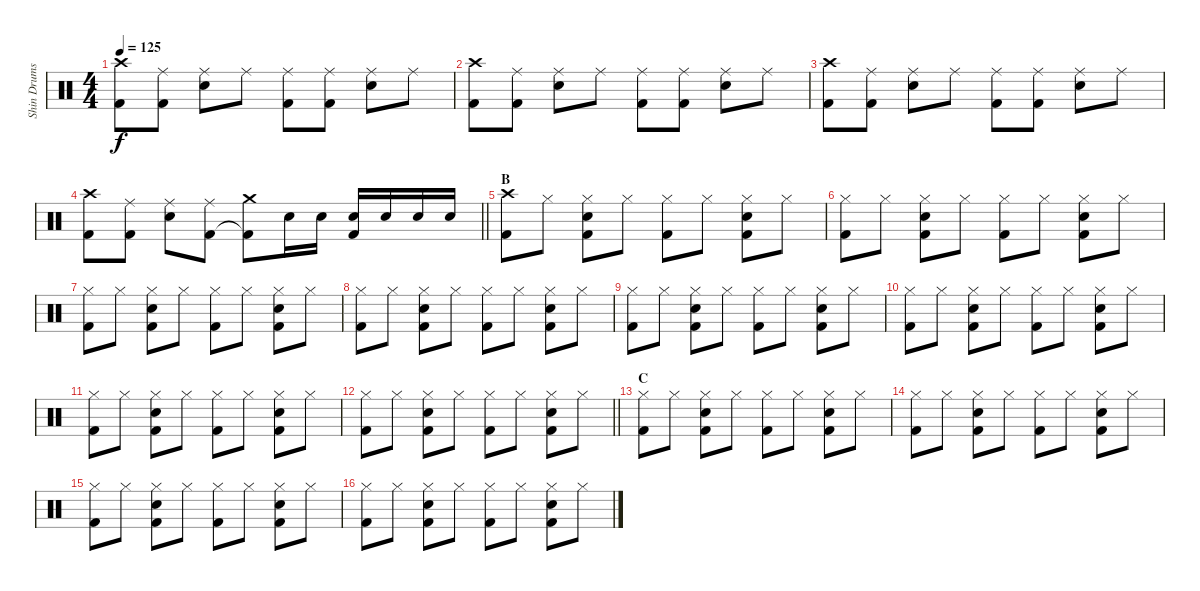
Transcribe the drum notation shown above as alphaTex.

\track ("Shin Drums" "Shin Drums") {instrument percussion}
\staff {score}
\articulation defaults
\ts (4 4)
\tempo 125
\clef neutral
\ks c
("Crash high (hit)" "Kick (hit) 2").8{dy f} ("Ride (middle)" "Kick (hit) 2").8 ("Ride (middle)" "Snare (hit) 2").8 "Ride (middle)".8 ("Ride (middle)" "Kick (hit) 2").8 ("Ride (middle)" "Kick (hit) 2").8 ("Ride (middle)" "Snare (hit) 2").8 "Ride (middle)".8 |
("Crash high (hit)" "Kick (hit) 2").8 ("Ride (middle)" "Kick (hit) 2").8 ("Ride (middle)" "Snare (hit) 2").8 "Ride (middle)".8 ("Ride (middle)" "Kick (hit) 2").8 ("Ride (middle)" "Kick (hit) 2").8 ("Ride (middle)" "Snare (hit) 2").8 "Ride (middle)".8 |
("Crash high (hit)" "Kick (hit) 2").8 ("Ride (middle)" "Kick (hit) 2").8 ("Ride (middle)" "Snare (hit) 2").8 "Ride (middle)".8 ("Ride (middle)" "Kick (hit) 2").8 ("Ride (middle)" "Kick (hit) 2").8 ("Ride (middle)" "Snare (hit) 2").8 "Ride (middle)".8 |
\barLineRight lightlight
("Crash high (hit)" "Kick (hit) 2").8 ("Ride (middle)" "Kick (hit) 2").8 ("Ride (middle)" "Snare (hit) 2").8 ("Ride (middle)" "Kick (hit) 2").8 ("Crash medium (hit)" "Kick (hit) 2"{t}).8 "Snare (hit) 2".16 "Snare (hit) 2".16 ("Snare (hit) 2" "Kick (hit) 2").16 "Snare (hit) 2".16 "Snare (hit) 2".16 "Snare (hit) 2".16 |
\section ("" "B")
("Crash high (hit)" "Kick (hit) 2").8 "Hi-Hat (closed)".8 ("Hi-Hat (closed)" "Snare (hit) 2" "Kick (hit) 2").8 "Hi-Hat (closed)".8 ("Hi-Hat (closed)" "Kick (hit) 2").8 "Hi-Hat (closed)".8 ("Hi-Hat (closed)" "Snare (hit) 2" "Kick (hit) 2").8 "Hi-Hat (closed)".8 |
("Hi-Hat (closed)" "Kick (hit) 2").8 "Hi-Hat (closed)".8 ("Hi-Hat (closed)" "Snare (hit) 2" "Kick (hit) 2").8 "Hi-Hat (closed)".8 ("Hi-Hat (closed)" "Kick (hit) 2").8 "Hi-Hat (closed)".8 ("Hi-Hat (closed)" "Snare (hit) 2" "Kick (hit) 2").8 "Hi-Hat (closed)".8 |
("Hi-Hat (closed)" "Kick (hit) 2").8 "Hi-Hat (closed)".8 ("Hi-Hat (closed)" "Snare (hit) 2" "Kick (hit) 2").8 "Hi-Hat (closed)".8 ("Hi-Hat (closed)" "Kick (hit) 2").8 "Hi-Hat (closed)".8 ("Hi-Hat (closed)" "Snare (hit) 2" "Kick (hit) 2").8 "Hi-Hat (closed)".8 |
("Hi-Hat (closed)" "Kick (hit) 2").8 "Hi-Hat (closed)".8 ("Hi-Hat (closed)" "Snare (hit) 2" "Kick (hit) 2").8 "Hi-Hat (closed)".8 ("Hi-Hat (closed)" "Kick (hit) 2").8 "Hi-Hat (closed)".8 ("Hi-Hat (closed)" "Snare (hit) 2" "Kick (hit) 2").8 "Hi-Hat (closed)".8 |
("Hi-Hat (closed)" "Kick (hit) 2").8 "Hi-Hat (closed)".8 ("Hi-Hat (closed)" "Snare (hit) 2" "Kick (hit) 2").8 "Hi-Hat (closed)".8 ("Hi-Hat (closed)" "Kick (hit) 2").8 "Hi-Hat (closed)".8 ("Hi-Hat (closed)" "Snare (hit) 2" "Kick (hit) 2").8 "Hi-Hat (closed)".8 |
("Hi-Hat (closed)" "Kick (hit) 2").8 "Hi-Hat (closed)".8 ("Hi-Hat (closed)" "Snare (hit) 2" "Kick (hit) 2").8 "Hi-Hat (closed)".8 ("Hi-Hat (closed)" "Kick (hit) 2").8 "Hi-Hat (closed)".8 ("Hi-Hat (closed)" "Snare (hit) 2" "Kick (hit) 2").8 "Hi-Hat (closed)".8 |
("Hi-Hat (closed)" "Kick (hit) 2").8 "Hi-Hat (closed)".8 ("Hi-Hat (closed)" "Snare (hit) 2" "Kick (hit) 2").8 "Hi-Hat (closed)".8 ("Hi-Hat (closed)" "Kick (hit) 2").8 "Hi-Hat (closed)".8 ("Hi-Hat (closed)" "Snare (hit) 2" "Kick (hit) 2").8 "Hi-Hat (closed)".8 |
\barLineRight lightlight
("Hi-Hat (closed)" "Kick (hit) 2").8 "Hi-Hat (closed)".8 ("Hi-Hat (closed)" "Snare (hit) 2" "Kick (hit) 2").8 "Hi-Hat (closed)".8 ("Hi-Hat (closed)" "Kick (hit) 2").8 "Hi-Hat (closed)".8 ("Hi-Hat (closed)" "Snare (hit) 2" "Kick (hit) 2").8 "Hi-Hat (closed)".8 |
\section ("" "C")
("Hi-Hat (closed)" "Kick (hit) 2").8 "Hi-Hat (closed)".8 ("Hi-Hat (closed)" "Snare (hit) 2" "Kick (hit) 2").8 "Hi-Hat (closed)".8 ("Hi-Hat (closed)" "Kick (hit) 2").8 "Hi-Hat (closed)".8 ("Hi-Hat (closed)" "Snare (hit) 2" "Kick (hit) 2").8 "Hi-Hat (closed)".8 |
("Hi-Hat (closed)" "Kick (hit) 2").8 "Hi-Hat (closed)".8 ("Hi-Hat (closed)" "Snare (hit) 2" "Kick (hit) 2").8 "Hi-Hat (closed)".8 ("Hi-Hat (closed)" "Kick (hit) 2").8 "Hi-Hat (closed)".8 ("Hi-Hat (closed)" "Snare (hit) 2" "Kick (hit) 2").8 "Hi-Hat (closed)".8 |
("Hi-Hat (closed)" "Kick (hit) 2").8 "Hi-Hat (closed)".8 ("Hi-Hat (closed)" "Snare (hit) 2" "Kick (hit) 2").8 "Hi-Hat (closed)".8 ("Hi-Hat (closed)" "Kick (hit) 2").8 "Hi-Hat (closed)".8 ("Hi-Hat (closed)" "Snare (hit) 2" "Kick (hit) 2").8 "Hi-Hat (closed)".8 |
("Hi-Hat (closed)" "Kick (hit) 2").8 "Hi-Hat (closed)".8 ("Hi-Hat (closed)" "Snare (hit) 2" "Kick (hit) 2").8 "Hi-Hat (closed)".8 ("Hi-Hat (closed)" "Kick (hit) 2").8 "Hi-Hat (closed)".8 ("Hi-Hat (closed)" "Snare (hit) 2" "Kick (hit) 2").8 "Hi-Hat (closed)".8
